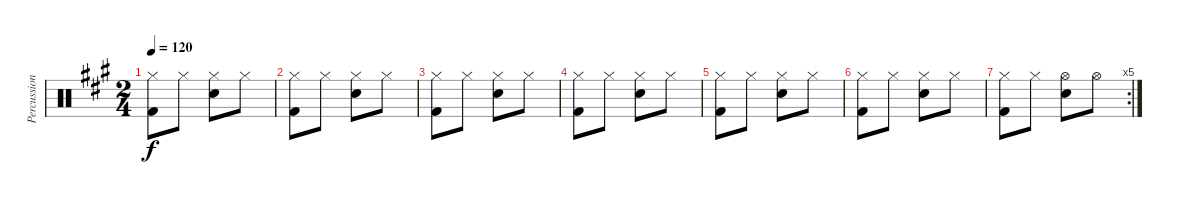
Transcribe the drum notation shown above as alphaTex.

\track ("Percussion" "Percussion") {instrument percussion}
\staff {score}
\articulation defaults
\ts (2 4)
\tempo 120
\clef neutral
\ks a
("Hi-Hat (closed)" "Kick (hit) 2").8{dy f} "Hi-Hat (closed)".8 ("Hi-Hat (closed)" "Snare (hit) 2").8 "Hi-Hat (closed)".8 |
("Hi-Hat (closed)" "Kick (hit) 2").8 "Hi-Hat (closed)".8 ("Hi-Hat (closed)" "Snare (hit) 2").8 "Hi-Hat (closed)".8 |
("Hi-Hat (closed)" "Kick (hit) 2").8 "Hi-Hat (closed)".8 ("Hi-Hat (closed)" "Snare (hit) 2").8 "Hi-Hat (closed)".8 |
("Hi-Hat (closed)" "Kick (hit) 2").8 "Hi-Hat (closed)".8 ("Hi-Hat (closed)" "Snare (hit) 2").8 "Hi-Hat (closed)".8 |
("Hi-Hat (closed)" "Kick (hit) 2").8 "Hi-Hat (closed)".8 ("Hi-Hat (closed)" "Snare (hit) 2").8 "Hi-Hat (closed)".8 |
("Hi-Hat (closed)" "Kick (hit) 2").8 "Hi-Hat (closed)".8 ("Hi-Hat (closed)" "Snare (hit) 2").8 "Hi-Hat (closed)".8 |
\rc 5
("Hi-Hat (closed)" "Kick (hit) 2").8 "Hi-Hat (closed)".8 ("Hi-Hat (open)" "Snare (hit) 2").8 "Hi-Hat (open)".8
